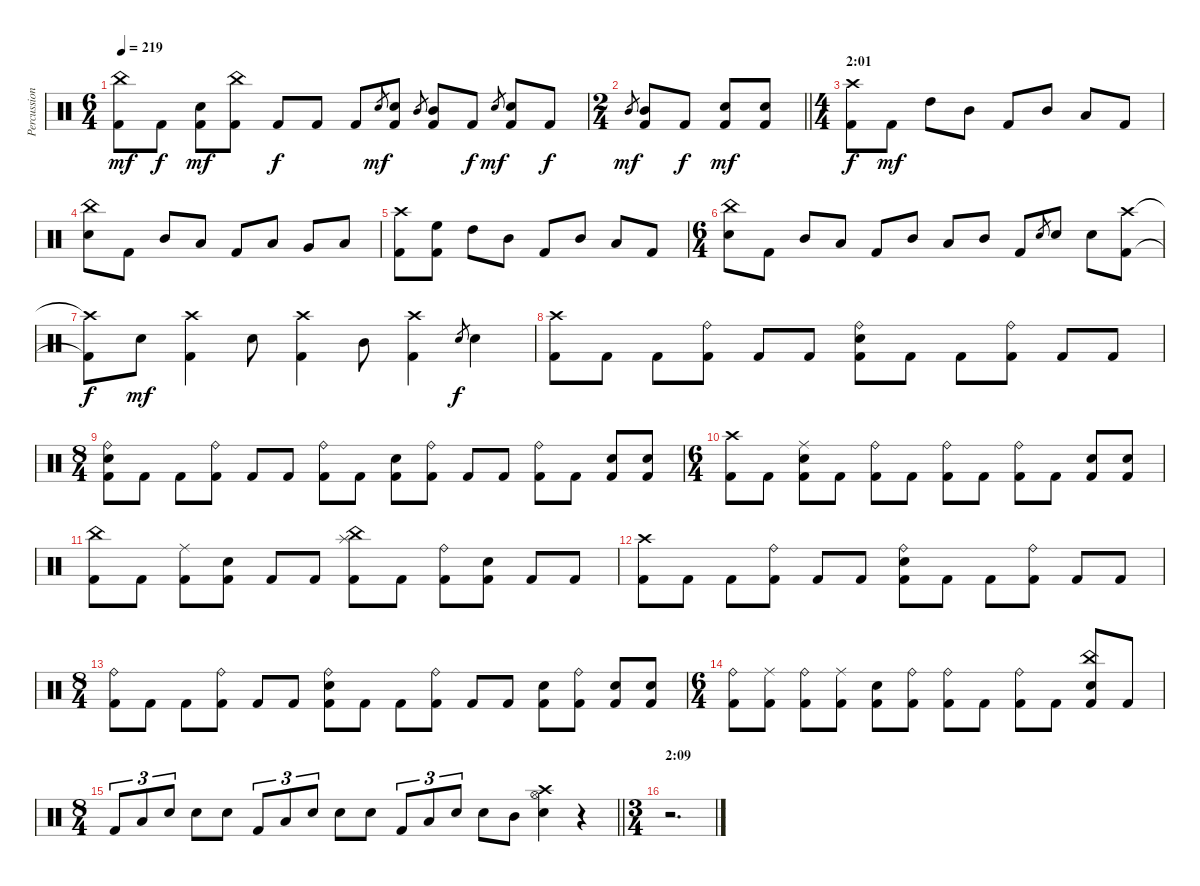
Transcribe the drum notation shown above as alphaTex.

\track ("Percussion" "Percussion") {instrument percussion}
\staff {score}
\articulation defaults
\ts (6 4)
\tempo 219
\clef neutral
\ks c
("Kick (hit) 2" "China (hit)").8{dy mf} "Kick (hit) 2".8{dy f} ("Kick (hit) 2" "Electric Snare (hit)").8{dy mf} ("Kick (hit) 2" "China (hit)").8 "Kick (hit) 2".8{dy f} "Kick (hit) 2".8 "Kick (hit) 2".8 "Electric Snare (hit)".8{gr dy mf} ("Kick (hit) 2" "Electric Snare (hit)").8 "Mid Tom (hit)".8{gr} ("Kick (hit) 2" "Mid Tom (hit)").8 "Kick (hit) 2".8{dy f} "Electric Snare (hit)".8{gr dy mf} ("Kick (hit) 2" "Electric Snare (hit)").8 "Kick (hit) 2".8{dy f} |
\ts (2 4)
\barLineRight lightlight "Mid Tom (hit)".8{gr dy mf}
("Kick (hit) 2" "Mid Tom (hit)").8 "Kick (hit) 2".8{dy f} ("Kick (hit) 2" "Electric Snare (hit)").8{dy mf} ("Kick (hit) 2" "Electric Snare (hit)").8 |
\ts (4 4)
\section ("" "2:01")
("Kick (hit) 2" "Crash high (hit)").8{dy f} "Kick (hit) 2".8{dy mf} "High Tom (hit)".8 "Mid Tom (hit)".8 "Kick (hit) 2".8 "Mid Tom (hit)".8 "Low Tom (hit)".8 "Kick (hit) 2".8 |
("China (hit)" "Electric Snare (hit)").8 "Kick (hit) 2".8 "Mid Tom (hit)".8 "Low Tom (hit)".8 "Kick (hit) 2".8 "Low Tom (hit)".8 "Very Low Tom (hit)".8 "Low Floor Tom (hit)".8 |
("Crash high (hit)" "Kick (hit) 2").8 ("Kick (hit) 2" "High Floor Tom (hit)").8 "High Tom (hit)".8 "Mid Tom (hit)".8 "Kick (hit) 2".8 "Mid Tom (hit)".8 "Low Tom (hit)".8 "Kick (hit) 2".8 |
\ts (6 4)
("China (hit)" "Electric Snare (hit)").8 "Kick (hit) 2".8 "Mid Tom (hit)".8 "Low Tom (hit)".8 "Kick (hit) 2".8 "Mid Tom (hit)".8 "Low Tom (hit)".8 "Mid Tom (hit)".8 "Kick (hit) 2".8 "Electric Snare (hit)".8{gr} "Electric Snare (hit)".8 "Electric Snare (hit)".8 ("Crash high (hit)" "Kick (hit) 2").8 |
("Crash high (hit)"{t} "Kick (hit) 2"{t}).8{dy f} "Electric Snare (hit)".8{dy mf} ("Crash high (hit)" "Kick (hit) 2").4 "Electric Snare (hit)".8 ("Crash high (hit)" "Kick (hit) 2").4 "Mid Tom (hit)".8 ("Crash high (hit)" "Kick (hit) 2").4 "Electric Snare (hit)".8{gr dy f} "Electric Snare (hit)".4 |
("Kick (hit) 2" "Crash high (hit)").8 "Kick (hit) 2".8 "Kick (hit) 2".8 ("Kick (hit) 2" "Ride (bell)").8 "Kick (hit) 2".8 "Kick (hit) 2".8 ("Kick (hit) 2" "Ride (bell)" "Electric Snare (hit)").8 "Kick (hit) 2".8 "Kick (hit) 2".8 ("Kick (hit) 2" "Ride (bell)").8 "Kick (hit) 2".8 "Kick (hit) 2".8 |
\ts (8 4)
("Kick (hit) 2" "Ride (bell)" "Electric Snare (hit)").8 "Kick (hit) 2".8 "Kick (hit) 2".8 ("Kick (hit) 2" "Ride (bell)").8 "Kick (hit) 2".8 "Kick (hit) 2".8 ("Kick (hit) 2" "Ride (bell)").8 "Kick (hit) 2".8 ("Kick (hit) 2" "Electric Snare (hit)").8 ("Kick (hit) 2" "Ride (bell)").8 "Kick (hit) 2".8 "Kick (hit) 2".8 ("Kick (hit) 2" "Ride (bell)").8 "Kick (hit) 2".8 ("Kick (hit) 2" "Electric Snare (hit)").8 ("Kick (hit) 2" "Electric Snare (hit)").8 |
\ts (6 4)
("Kick (hit) 2" "Crash high (hit)").8 "Kick (hit) 2".8 ("Kick (hit) 2" "Electric Snare (hit)" "Ride (middle)").8 "Kick (hit) 2".8 ("Kick (hit) 2" "Ride (bell)").8 "Kick (hit) 2".8 ("Kick (hit) 2" "Ride (bell)").8 "Kick (hit) 2".8 ("Kick (hit) 2" "Ride (bell)").8 "Kick (hit) 2".8 ("Kick (hit) 2" "Electric Snare (hit)").8 ("Kick (hit) 2" "Electric Snare (hit)").8 |
("Kick (hit) 2" "China (hit)").8 "Kick (hit) 2".8 ("Kick (hit) 2" "Ride (middle)").8 ("Kick (hit) 2" "Electric Snare (hit)").8 "Kick (hit) 2".8 "Kick (hit) 2".8 ("Kick (hit) 2" "China (hit)" "Splash (hit)").8 "Kick (hit) 2".8 ("Kick (hit) 2" "Ride (bell)").8 ("Kick (hit) 2" "Electric Snare (hit)").8 "Kick (hit) 2".8 "Kick (hit) 2".8 |
("Kick (hit) 2" "Crash high (hit)").8 "Kick (hit) 2".8 "Kick (hit) 2".8 ("Kick (hit) 2" "Ride (bell)").8 "Kick (hit) 2".8 "Kick (hit) 2".8 ("Kick (hit) 2" "Ride (bell)" "Electric Snare (hit)").8 "Kick (hit) 2".8 "Kick (hit) 2".8 ("Kick (hit) 2" "Ride (bell)").8 "Kick (hit) 2".8 "Kick (hit) 2".8 |
\ts (8 4)
("Kick (hit) 2" "Ride (bell)").8 "Kick (hit) 2".8 "Kick (hit) 2".8 ("Kick (hit) 2" "Ride (bell)").8 "Kick (hit) 2".8 "Kick (hit) 2".8 ("Kick (hit) 2" "Ride (bell)" "Electric Snare (hit)").8 "Kick (hit) 2".8 "Kick (hit) 2".8 ("Kick (hit) 2" "Ride (bell)").8 "Kick (hit) 2".8 "Kick (hit) 2".8 ("Kick (hit) 2" "Electric Snare (hit)").8 ("Kick (hit) 2" "Ride (bell)").8 ("Kick (hit) 2" "Electric Snare (hit)").8 ("Kick (hit) 2" "Electric Snare (hit)").8 |
\ts (6 4)
("Kick (hit) 2" "Ride (bell)").8 ("Kick (hit) 2" "Ride (middle)").8 ("Kick (hit) 2" "Ride (bell)").8 ("Kick (hit) 2" "Ride (middle)").8 ("Kick (hit) 2" "Electric Snare (hit)").8 ("Kick (hit) 2" "Ride (bell)").8 ("Kick (hit) 2" "Ride (bell)").8 "Kick (hit) 2".8 ("Kick (hit) 2" "Ride (bell)").8 "Kick (hit) 2".8 ("Kick (hit) 2" "Electric Snare (hit)" "China (hit)").8 "Kick (hit) 2".8 |
\ts (8 4)
\barLineRight lightlight "Kick (hit) 2".8{tu (3 2)} "Low Tom (hit)".8{tu (3 2)} "Electric Snare (hit)".8{tu (3 2)} "Electric Snare (hit)".8 "Electric Snare (hit)".8 "Kick (hit) 2".8{tu (3 2)} "Low Tom (hit)".8{tu (3 2)} "Electric Snare (hit)".8{tu (3 2)} "Electric Snare (hit)".8 "Electric Snare (hit)".8 "Kick (hit) 2".8{tu (3 2)} "Low Tom (hit)".8{tu (3 2)} "Electric Snare (hit)".8{tu (3 2)} "Electric Snare (hit)".8 "Mid Tom (hit)".8
("Hi-Hat (open)" "Crash high (hit)" "Electric Snare (hit)").4 r.4{volume 0} |
\ts (3 4)
\section ("" "2:09")
r.2{d}
